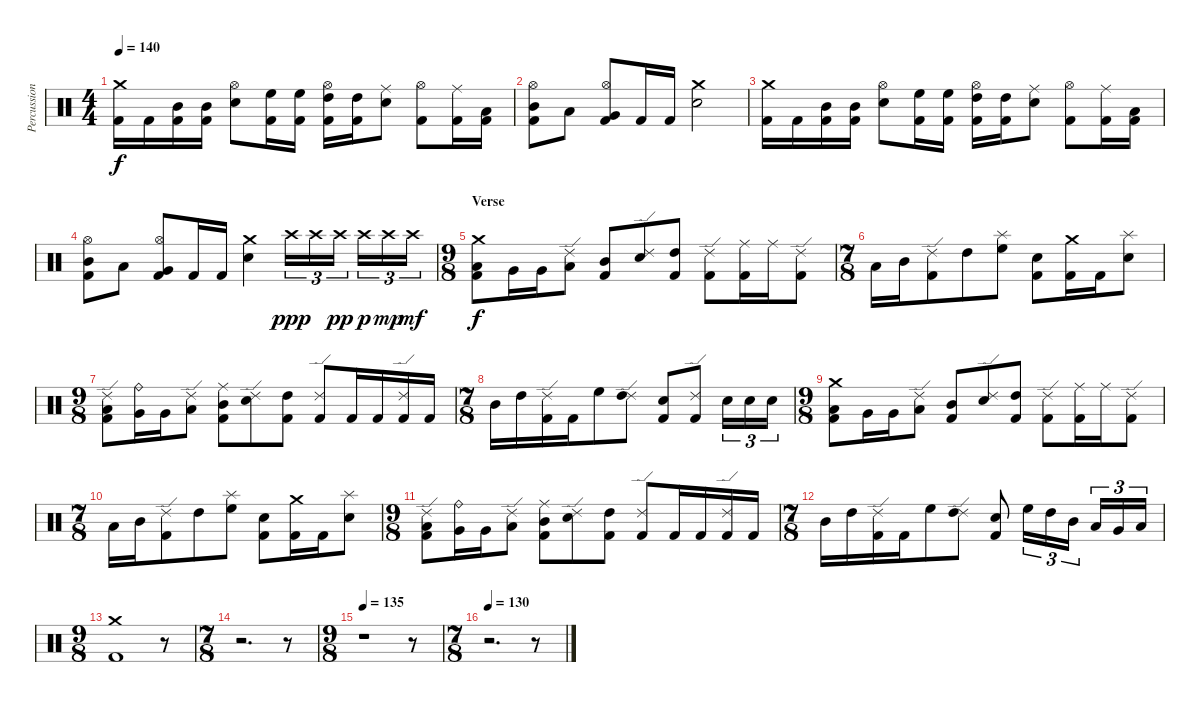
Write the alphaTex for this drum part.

\track ("Percussion" "Percussion") {instrument percussion}
\staff {score}
\articulation defaults
\ts (4 4)
\tempo 140
\clef neutral
\ks c
("Crash medium (hit)" "Kick (hit) 2").16{dy f} "Kick (hit) 2".16 ("Mid Tom (hit)" "Kick (hit) 2").16 ("Mid Tom (hit)" "Kick (hit) 2").16 ("Hi-Hat (open)" "Electric Snare (hit)").8 ("High Floor Tom (hit)" "Kick (hit) 2").16 ("High Floor Tom (hit)" "Kick (hit) 2").16 ("Hi-Hat (open)" "High Tom (hit)" "Kick (hit) 2").16 ("High Tom (hit)" "Kick (hit) 2").16 ("Ride (middle)" "Electric Snare (hit)").8 ("Hi-Hat (open)" "Kick (hit) 2").8 ("Ride (middle)" "Kick (hit) 2").16 ("Low Tom (hit)" "Kick (hit) 2").16 |
("Hi-Hat (open)" "Mid Tom (hit)" "Kick (hit) 2").8 "Low Tom (hit)".8 ("Hi-Hat (open)" "Very Low Tom (hit)" "Kick (hit) 2").8 "Kick (hit) 2".16 "Kick (hit) 2".16 ("Crash medium (hit)" "Electric Snare (hit)").2 |
("Crash medium (hit)" "Kick (hit) 2").16 "Kick (hit) 2".16 ("Mid Tom (hit)" "Kick (hit) 2").16 ("Mid Tom (hit)" "Kick (hit) 2").16 ("Hi-Hat (open)" "Electric Snare (hit)").8 ("High Floor Tom (hit)" "Kick (hit) 2").16 ("High Floor Tom (hit)" "Kick (hit) 2").16 ("Hi-Hat (open)" "High Tom (hit)" "Kick (hit) 2").16 ("High Tom (hit)" "Kick (hit) 2").16 ("Ride (middle)" "Electric Snare (hit)").8 ("Hi-Hat (open)" "Kick (hit) 2").8 ("Ride (middle)" "Kick (hit) 2").16 ("Low Tom (hit)" "Kick (hit) 2").16 |
("Hi-Hat (open)" "Mid Tom (hit)" "Kick (hit) 2").8 "Low Tom (hit)".8 ("Hi-Hat (open)" "Very Low Tom (hit)" "Kick (hit) 2").8 "Kick (hit) 2".16 "Kick (hit) 2".16 ("Crash medium (hit)" "Electric Snare (hit)").4 "Crash high (hit)".16{tu (3 2) dy ppp} "Crash high (hit)".16{tu (3 2)} "Crash high (hit)".16{tu (3 2) dy pp} "Crash high (hit)".16{tu (3 2) dy p} "Crash high (hit)".16{tu (3 2) dy mp} "Crash high (hit)".16{tu (3 2) dy mf} |
\ts (9 8)
\section ("" "Verse")
("Crash medium (hit)" "Low Floor Tom (hit)" "Kick (hit) 2").8{dy f} "Very Low Tom (hit)".16 "Very Low Tom (hit)".16 ("Ride (edge) 2" "Low Tom (hit)").8 ("Mid Tom (hit)" "Kick (hit) 2").8 ("Ride (edge) 2" "Electric Snare (hit)").8 ("High Tom (hit)" "Kick (hit) 2").8 ("Ride (edge) 2" "Kick (hit) 2").8 ("Ride (middle)" "Kick (hit) 2").16 "Ride (middle)".16 ("Ride (edge) 2" "Kick (hit) 2").8 |
\ts (7 8)
"Low Tom (hit)".16 "Mid Tom (hit)".16 ("Ride (edge) 2" "Kick (hit) 2").8 "High Tom (hit)".8 ("Splash (hit)" "High Floor Tom (hit)").8 ("Electric Snare (hit)" "Kick (hit) 2").8 ("Crash medium (hit)" "Kick (hit) 2").16 "Kick (hit) 2".16 ("Splash (hit)" "Electric Snare (hit)").8 |
\ts (9 8)
("Ride (edge) 2" "Low Floor Tom (hit)" "Kick (hit) 2").8 ("Ride (bell)" "Very Low Tom (hit)").16 "Very Low Tom (hit)".16 ("Ride (edge) 2" "Low Tom (hit)").8 ("Ride (middle)" "Mid Tom (hit)" "Kick (hit) 2").8 ("Ride (edge) 2" "Electric Snare (hit)").8 ("High Tom (hit)" "Kick (hit) 2").8 ("Ride (edge) 2" "Kick (hit) 2").8 "Kick (hit) 2".16 "Kick (hit) 2".16 ("Ride (edge) 2" "Kick (hit) 2").16 "Kick (hit) 2".16 |
\ts (7 8)
"Mid Tom (hit)".16 "High Tom (hit)".16 ("Ride (edge) 2" "Kick (hit) 2").16 "Kick (hit) 2".16 "High Floor Tom (hit)".8 ("Ride (edge) 2" "High Tom (hit)").8 ("Electric Snare (hit)" "Kick (hit) 2").8 ("Ride (edge) 2" "Kick (hit) 2").8 "Electric Snare (hit)".16{tu (3 2)} "Electric Snare (hit)".16{tu (3 2)} "Electric Snare (hit)".16{tu (3 2)} |
\ts (9 8)
("Crash medium (hit)" "Low Floor Tom (hit)" "Kick (hit) 2").8 "Very Low Tom (hit)".16 "Very Low Tom (hit)".16 ("Ride (edge) 2" "Low Tom (hit)").8 ("Mid Tom (hit)" "Kick (hit) 2").8 ("Ride (edge) 2" "Electric Snare (hit)").8 ("High Tom (hit)" "Kick (hit) 2").8 ("Ride (edge) 2" "Kick (hit) 2").8 ("Ride (middle)" "Kick (hit) 2").16 "Ride (middle)".16 ("Ride (edge) 2" "Kick (hit) 2").8 |
\ts (7 8)
"Low Tom (hit)".16 "Mid Tom (hit)".16 ("Ride (edge) 2" "Kick (hit) 2").8 "High Tom (hit)".8 ("Splash (hit)" "High Floor Tom (hit)").8 ("Electric Snare (hit)" "Kick (hit) 2").8 ("Crash medium (hit)" "Kick (hit) 2").16 "Kick (hit) 2".16 ("Splash (hit)" "Electric Snare (hit)").8 |
\ts (9 8)
("Ride (edge) 2" "Low Floor Tom (hit)" "Kick (hit) 2").8 ("Ride (bell)" "Very Low Tom (hit)").16 "Very Low Tom (hit)".16 ("Ride (edge) 2" "Low Tom (hit)").8 ("Ride (middle)" "Mid Tom (hit)" "Kick (hit) 2").8 ("Ride (edge) 2" "Electric Snare (hit)").8 ("High Tom (hit)" "Kick (hit) 2").8 ("Ride (edge) 2" "Kick (hit) 2").8 "Kick (hit) 2".16 "Kick (hit) 2".16 ("Ride (edge) 2" "Kick (hit) 2").16 "Kick (hit) 2".16 |
\ts (7 8)
"Mid Tom (hit)".16 "High Tom (hit)".16 ("Ride (edge) 2" "Kick (hit) 2").16 "Kick (hit) 2".16 "High Floor Tom (hit)".8 ("Ride (edge) 2" "High Tom (hit)").8 ("Electric Snare (hit)" "Kick (hit) 2").8 "High Floor Tom (hit)".16{tu (3 2)} "High Tom (hit)".16{tu (3 2)} "Mid Tom (hit)".16{tu (3 2)} "Low Tom (hit)".16{tu (3 2)} "Very Low Tom (hit)".16{tu (3 2)} "Low Floor Tom (hit)".16{tu (3 2)} |
\ts (9 8)
("Crash medium (hit)" "Kick (hit) 2").1 r.8 |
\ts (7 8)
r.2{d} r.8 |
\ts (9 8)
\tempo 135
r.1 r.8 |
\ts (7 8)
\tempo 130
r.2{d} r.8
